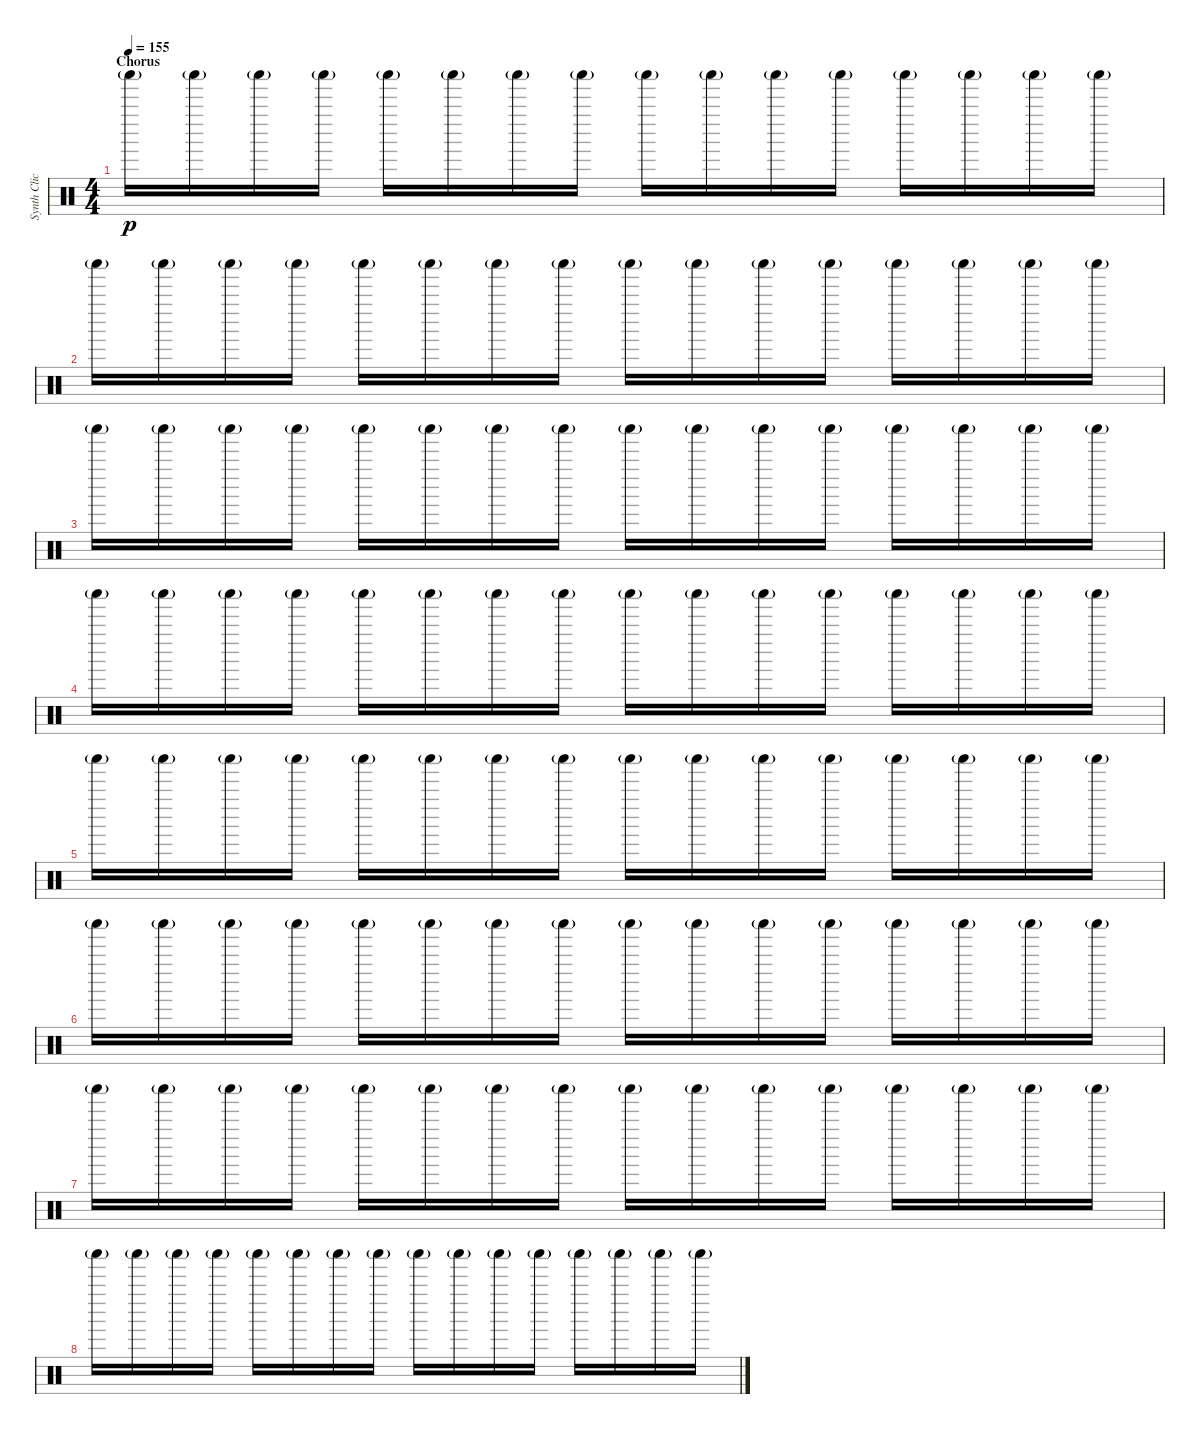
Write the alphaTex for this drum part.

\track ("Synth Click" "Synth Clic") {instrument percussion}
\staff {score}
\articulation defaults
\ts (4 4)
\section ("" "Chorus")
\tempo 155
\clef neutral
\ks c "Shaker (hit)"{g}.16{dy p} "Shaker (hit)"{g}.16 "Shaker (hit)"{g}.16 "Shaker (hit)"{g}.16 "Shaker (hit)"{g}.16 "Shaker (hit)"{g}.16 "Shaker (hit)"{g}.16 "Shaker (hit)"{g}.16 "Shaker (hit)"{g}.16 "Shaker (hit)"{g}.16 "Shaker (hit)"{g}.16 "Shaker (hit)"{g}.16 "Shaker (hit)"{g}.16 "Shaker (hit)"{g}.16 "Shaker (hit)"{g}.16 "Shaker (hit)"{g}.16
|
"Shaker (hit)"{g}.16 "Shaker (hit)"{g}.16 "Shaker (hit)"{g}.16 "Shaker (hit)"{g}.16 "Shaker (hit)"{g}.16 "Shaker (hit)"{g}.16 "Shaker (hit)"{g}.16 "Shaker (hit)"{g}.16 "Shaker (hit)"{g}.16 "Shaker (hit)"{g}.16 "Shaker (hit)"{g}.16 "Shaker (hit)"{g}.16 "Shaker (hit)"{g}.16 "Shaker (hit)"{g}.16 "Shaker (hit)"{g}.16 "Shaker (hit)"{g}.16 |
"Shaker (hit)"{g}.16 "Shaker (hit)"{g}.16 "Shaker (hit)"{g}.16 "Shaker (hit)"{g}.16 "Shaker (hit)"{g}.16 "Shaker (hit)"{g}.16 "Shaker (hit)"{g}.16 "Shaker (hit)"{g}.16 "Shaker (hit)"{g}.16 "Shaker (hit)"{g}.16 "Shaker (hit)"{g}.16 "Shaker (hit)"{g}.16 "Shaker (hit)"{g}.16 "Shaker (hit)"{g}.16 "Shaker (hit)"{g}.16 "Shaker (hit)"{g}.16 |
"Shaker (hit)"{g}.16 "Shaker (hit)"{g}.16 "Shaker (hit)"{g}.16 "Shaker (hit)"{g}.16 "Shaker (hit)"{g}.16 "Shaker (hit)"{g}.16 "Shaker (hit)"{g}.16 "Shaker (hit)"{g}.16 "Shaker (hit)"{g}.16 "Shaker (hit)"{g}.16 "Shaker (hit)"{g}.16 "Shaker (hit)"{g}.16 "Shaker (hit)"{g}.16 "Shaker (hit)"{g}.16 "Shaker (hit)"{g}.16 "Shaker (hit)"{g}.16 |
"Shaker (hit)"{g}.16 "Shaker (hit)"{g}.16 "Shaker (hit)"{g}.16 "Shaker (hit)"{g}.16 "Shaker (hit)"{g}.16 "Shaker (hit)"{g}.16 "Shaker (hit)"{g}.16 "Shaker (hit)"{g}.16 "Shaker (hit)"{g}.16 "Shaker (hit)"{g}.16 "Shaker (hit)"{g}.16 "Shaker (hit)"{g}.16 "Shaker (hit)"{g}.16 "Shaker (hit)"{g}.16 "Shaker (hit)"{g}.16 "Shaker (hit)"{g}.16 |
"Shaker (hit)"{g}.16 "Shaker (hit)"{g}.16 "Shaker (hit)"{g}.16 "Shaker (hit)"{g}.16 "Shaker (hit)"{g}.16 "Shaker (hit)"{g}.16 "Shaker (hit)"{g}.16 "Shaker (hit)"{g}.16 "Shaker (hit)"{g}.16 "Shaker (hit)"{g}.16 "Shaker (hit)"{g}.16 "Shaker (hit)"{g}.16 "Shaker (hit)"{g}.16 "Shaker (hit)"{g}.16 "Shaker (hit)"{g}.16 "Shaker (hit)"{g}.16 |
"Shaker (hit)"{g}.16 "Shaker (hit)"{g}.16 "Shaker (hit)"{g}.16 "Shaker (hit)"{g}.16 "Shaker (hit)"{g}.16 "Shaker (hit)"{g}.16 "Shaker (hit)"{g}.16 "Shaker (hit)"{g}.16 "Shaker (hit)"{g}.16 "Shaker (hit)"{g}.16 "Shaker (hit)"{g}.16 "Shaker (hit)"{g}.16 "Shaker (hit)"{g}.16 "Shaker (hit)"{g}.16 "Shaker (hit)"{g}.16 "Shaker (hit)"{g}.16 |
"Shaker (hit)"{g}.16 "Shaker (hit)"{g}.16 "Shaker (hit)"{g}.16 "Shaker (hit)"{g}.16 "Shaker (hit)"{g}.16 "Shaker (hit)"{g}.16 "Shaker (hit)"{g}.16 "Shaker (hit)"{g}.16 "Shaker (hit)"{g}.16 "Shaker (hit)"{g}.16 "Shaker (hit)"{g}.16 "Shaker (hit)"{g}.16 "Shaker (hit)"{g}.16 "Shaker (hit)"{g}.16 "Shaker (hit)"{g}.16 "Shaker (hit)"{g}.16
